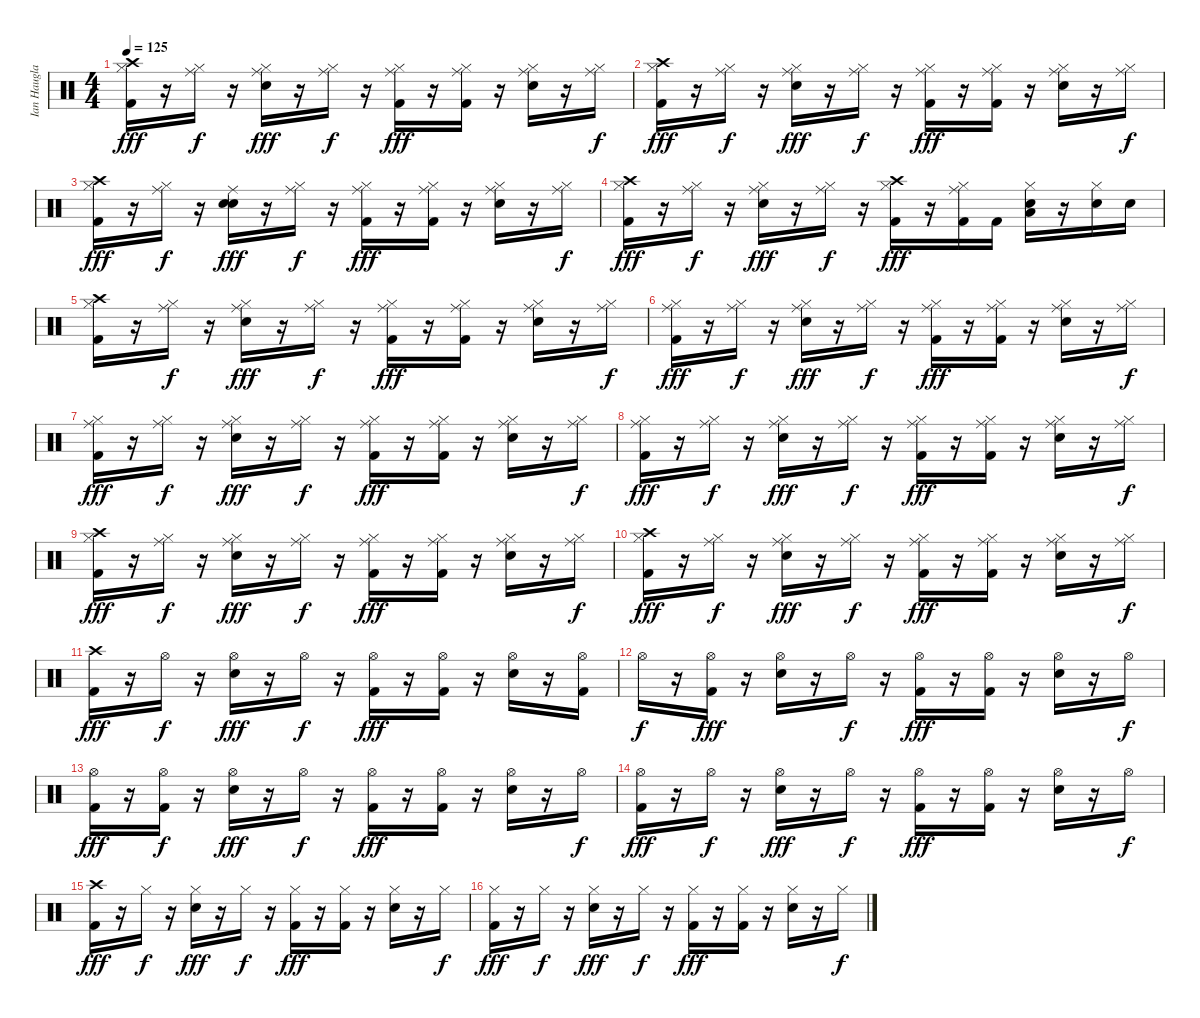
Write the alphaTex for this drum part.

\track ("Ian Haugland" "Ian Haugla") {instrument percussion}
\staff {score}
\articulation defaults
\ts (4 4)
\tempo 125
\clef neutral
\ks c
("Crash high (hit)" "Hi-Hat (closed)" "Kick (hit) 2").16{dy fff} r.16 ("Ride (middle)" "Hi-Hat (closed)").16{dy f} r.16 ("Ride (middle)" "Hi-Hat (closed)" "Electric Snare (hit)").16{dy fff} r.16 ("Ride (middle)" "Hi-Hat (closed)").16{dy f} r.16 ("Ride (middle)" "Hi-Hat (closed)" "Kick (hit) 2").16{dy fff} r.16 ("Ride (middle)" "Hi-Hat (closed)" "Kick (hit) 2").16 r.16 ("Ride (middle)" "Hi-Hat (closed)" "Electric Snare (hit)").16 r.16 ("Ride (middle)" "Hi-Hat (closed)").16{dy f} |
("Crash high (hit)" "Hi-Hat (closed)" "Kick (hit) 2").16{dy fff} r.16 ("Ride (middle)" "Hi-Hat (closed)").16{dy f} r.16 ("Ride (middle)" "Hi-Hat (closed)" "Electric Snare (hit)").16{dy fff} r.16 ("Ride (middle)" "Hi-Hat (closed)").16{dy f} r.16 ("Ride (middle)" "Hi-Hat (closed)" "Kick (hit) 2").16{dy fff} r.16 ("Ride (middle)" "Hi-Hat (closed)" "Kick (hit) 2").16 r.16 ("Ride (middle)" "Hi-Hat (closed)" "Electric Snare (hit)").16 r.16 ("Ride (middle)" "Hi-Hat (closed)").16{dy f} |
("Crash high (hit)" "Hi-Hat (closed)" "Kick (hit) 2").16{dy fff} r.16 ("Ride (middle)" "Hi-Hat (closed)").16{dy f} r.16 ("Ride (middle)" "Snare (hit)" "Electric Snare (hit)").16{dy fff} r.16 ("Ride (middle)" "Hi-Hat (closed)").16{dy f} r.16 ("Ride (middle)" "Hi-Hat (closed)" "Kick (hit) 2").16{dy fff} r.16 ("Ride (middle)" "Hi-Hat (closed)" "Kick (hit) 2").16 r.16 ("Ride (middle)" "Hi-Hat (closed)" "Electric Snare (hit)").16 r.16 ("Ride (middle)" "Hi-Hat (closed)").16{dy f} |
("Crash high (hit)" "Hi-Hat (closed)" "Kick (hit) 2").16{dy fff} r.16 ("Ride (middle)" "Hi-Hat (closed)").16{dy f} r.16 ("Ride (middle)" "Hi-Hat (closed)" "Electric Snare (hit)").16{dy fff} r.16 ("Ride (middle)" "Hi-Hat (closed)").16{dy f} r.16 ("Crash high (hit)" "Hi-Hat (closed)" "Kick (hit) 2").16{dy fff} r.16 ("Ride (middle)" "Hi-Hat (closed)" "Kick (hit) 2").16 "Kick (hit) 2".16 ("Hi-Hat (closed)" "Low Floor Tom (hit)" "Electric Snare (hit)").16 r.16 ("Hi-Hat (closed)" "Electric Snare (hit)").16 "Electric Snare (hit)".16 |
("Crash high (hit)" "Hi-Hat (closed)" "Kick (hit) 2").16 r.16 ("Ride (middle)" "Hi-Hat (closed)").16{dy f} r.16 ("Ride (middle)" "Hi-Hat (closed)" "Electric Snare (hit)").16{dy fff} r.16 ("Ride (middle)" "Hi-Hat (closed)").16{dy f} r.16 ("Ride (middle)" "Hi-Hat (closed)" "Kick (hit) 2").16{dy fff} r.16 ("Ride (middle)" "Hi-Hat (closed)" "Kick (hit) 2").16 r.16 ("Ride (middle)" "Hi-Hat (closed)" "Electric Snare (hit)").16 r.16 ("Ride (middle)" "Hi-Hat (closed)").16{dy f} |
("Ride (middle)" "Hi-Hat (closed)" "Kick (hit) 2").16{dy fff} r.16 ("Ride (middle)" "Hi-Hat (closed)").16{dy f} r.16 ("Ride (middle)" "Hi-Hat (closed)" "Electric Snare (hit)").16{dy fff} r.16 ("Ride (middle)" "Hi-Hat (closed)").16{dy f} r.16 ("Ride (middle)" "Hi-Hat (closed)" "Kick (hit) 2").16{dy fff} r.16 ("Ride (middle)" "Hi-Hat (closed)" "Kick (hit) 2").16 r.16 ("Ride (middle)" "Hi-Hat (closed)" "Electric Snare (hit)").16 r.16 ("Ride (middle)" "Hi-Hat (closed)").16{dy f} |
("Ride (middle)" "Hi-Hat (closed)" "Kick (hit) 2").16{dy fff} r.16 ("Ride (middle)" "Hi-Hat (closed)").16{dy f} r.16 ("Ride (middle)" "Hi-Hat (closed)" "Electric Snare (hit)").16{dy fff} r.16 ("Ride (middle)" "Hi-Hat (closed)").16{dy f} r.16 ("Ride (middle)" "Hi-Hat (closed)" "Kick (hit) 2").16{dy fff} r.16 ("Ride (middle)" "Hi-Hat (closed)" "Kick (hit) 2").16 r.16 ("Ride (middle)" "Hi-Hat (closed)" "Electric Snare (hit)").16 r.16 ("Ride (middle)" "Hi-Hat (closed)").16{dy f} |
("Ride (middle)" "Hi-Hat (closed)" "Kick (hit) 2").16{dy fff} r.16 ("Ride (middle)" "Hi-Hat (closed)").16{dy f} r.16 ("Ride (middle)" "Hi-Hat (closed)" "Electric Snare (hit)").16{dy fff} r.16 ("Ride (middle)" "Hi-Hat (closed)").16{dy f} r.16 ("Ride (middle)" "Hi-Hat (closed)" "Kick (hit) 2").16{dy fff} r.16 ("Ride (middle)" "Hi-Hat (closed)" "Kick (hit) 2").16 r.16 ("Ride (middle)" "Hi-Hat (closed)" "Electric Snare (hit)").16 r.16 ("Ride (middle)" "Hi-Hat (closed)").16{dy f} |
("Crash high (hit)" "Hi-Hat (closed)" "Kick (hit) 2").16{dy fff} r.16 ("Ride (middle)" "Hi-Hat (closed)").16{dy f} r.16 ("Ride (middle)" "Hi-Hat (closed)" "Electric Snare (hit)").16{dy fff} r.16 ("Ride (middle)" "Hi-Hat (closed)").16{dy f} r.16 ("Ride (middle)" "Hi-Hat (closed)" "Kick (hit) 2").16{dy fff} r.16 ("Ride (middle)" "Hi-Hat (closed)" "Kick (hit) 2").16 r.16 ("Ride (middle)" "Hi-Hat (closed)" "Electric Snare (hit)").16 r.16 ("Ride (middle)" "Hi-Hat (closed)").16{dy f} |
("Crash high (hit)" "Hi-Hat (closed)" "Kick (hit) 2").16{dy fff} r.16 ("Ride (middle)" "Hi-Hat (closed)").16{dy f} r.16 ("Ride (middle)" "Hi-Hat (closed)" "Electric Snare (hit)").16{dy fff} r.16 ("Ride (middle)" "Hi-Hat (closed)").16{dy f} r.16 ("Ride (middle)" "Hi-Hat (closed)" "Kick (hit) 2").16{dy fff} r.16 ("Ride (middle)" "Hi-Hat (closed)" "Kick (hit) 2").16 r.16 ("Ride (middle)" "Hi-Hat (closed)" "Electric Snare (hit)").16 r.16 ("Ride (middle)" "Hi-Hat (closed)").16{dy f} |
("Crash high (hit)" "Kick (hit) 2").16{dy fff} r.16 "Hi-Hat (open)".16{dy f} r.16 ("Hi-Hat (open)" "Electric Snare (hit)").16{dy fff} r.16 "Hi-Hat (open)".16{dy f} r.16 ("Hi-Hat (open)" "Kick (hit) 2").16{dy fff} r.16 ("Hi-Hat (open)" "Kick (hit) 2").16 r.16 ("Hi-Hat (open)" "Electric Snare (hit)").16 r.16 ("Hi-Hat (open)" "Kick (hit) 2").16 |
"Hi-Hat (open)".16{dy f} r.16 ("Hi-Hat (open)" "Kick (hit) 2").16{dy fff} r.16 ("Hi-Hat (open)" "Electric Snare (hit)").16 r.16 "Hi-Hat (open)".16{dy f} r.16 ("Hi-Hat (open)" "Kick (hit) 2").16{dy fff} r.16 ("Hi-Hat (open)" "Kick (hit) 2").16 r.16 ("Hi-Hat (open)" "Electric Snare (hit)").16 r.16 "Hi-Hat (open)".16{dy f} |
("Hi-Hat (open)" "Kick (hit) 2").16{dy fff} r.16 ("Hi-Hat (open)" "Kick (hit) 2").16{dy f} r.16 ("Hi-Hat (open)" "Electric Snare (hit)").16{dy fff} r.16 "Hi-Hat (open)".16{dy f} r.16 ("Hi-Hat (open)" "Kick (hit) 2").16{dy fff} r.16 ("Hi-Hat (open)" "Kick (hit) 2").16 r.16 ("Hi-Hat (open)" "Electric Snare (hit)").16 r.16 "Hi-Hat (open)".16{dy f} |
("Hi-Hat (open)" "Kick (hit) 2").16{dy fff} r.16 "Hi-Hat (open)".16{dy f} r.16 ("Hi-Hat (open)" "Electric Snare (hit)").16{dy fff} r.16 "Hi-Hat (open)".16{dy f} r.16 ("Hi-Hat (open)" "Kick (hit) 2").16{dy fff} r.16 ("Hi-Hat (open)" "Kick (hit) 2").16 r.16 ("Hi-Hat (open)" "Electric Snare (hit)").16 r.16 "Hi-Hat (open)".16{dy f} |
("Crash high (hit)" "Kick (hit) 2").16{dy fff} r.16 "Hi-Hat (closed)".16{dy f} r.16 ("Hi-Hat (closed)" "Electric Snare (hit)").16{dy fff} r.16 "Hi-Hat (closed)".16{dy f} r.16 ("Hi-Hat (closed)" "Kick (hit) 2").16{dy fff} r.16 ("Hi-Hat (closed)" "Kick (hit) 2").16 r.16 ("Hi-Hat (closed)" "Electric Snare (hit)").16 r.16 "Hi-Hat (closed)".16{dy f} |
("Hi-Hat (closed)" "Kick (hit) 2").16{dy fff} r.16 "Hi-Hat (closed)".16{dy f} r.16 ("Hi-Hat (closed)" "Electric Snare (hit)").16{dy fff} r.16 "Hi-Hat (closed)".16{dy f} r.16 ("Hi-Hat (closed)" "Kick (hit) 2").16{dy fff} r.16 ("Hi-Hat (closed)" "Kick (hit) 2").16 r.16 ("Hi-Hat (closed)" "Electric Snare (hit)").16 r.16 "Hi-Hat (closed)".16{dy f}
